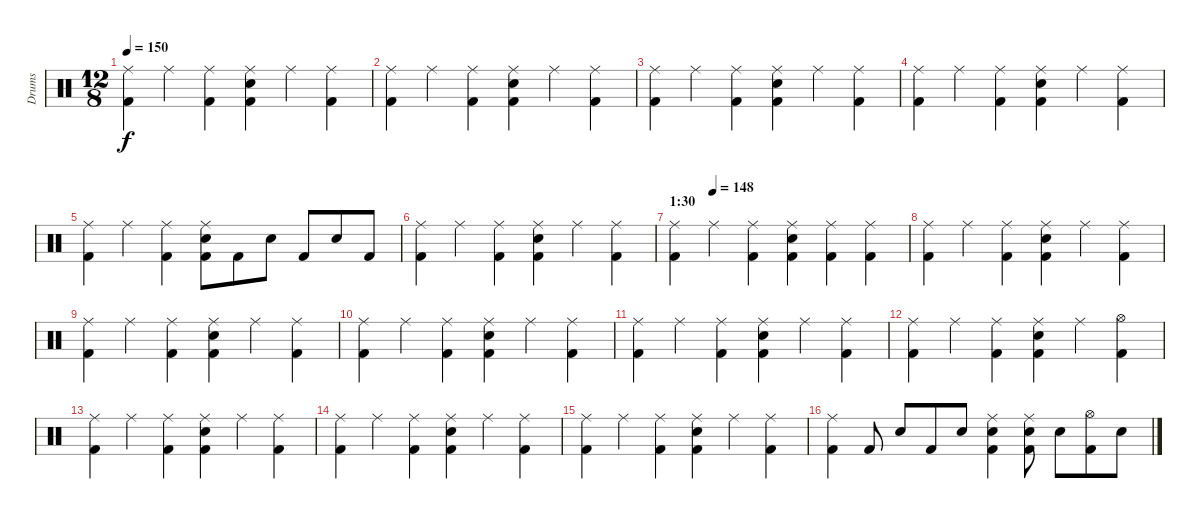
\track ("Drums" "Drums") {instrument percussion}
\staff {score}
\articulation defaults
\ts (12 8)
\tempo 150
\clef neutral
\ks c
("Ride (middle)" "Kick (hit) 2").4{dy f} "Ride (middle)".4 ("Ride (middle)" "Kick (hit) 2").4 ("Ride (middle)" "Snare (hit) 2" "Kick (hit) 2").4 "Ride (middle)".4 ("Ride (middle)" "Kick (hit) 2").4 |
("Ride (middle)" "Kick (hit) 2").4 "Ride (middle)".4 ("Ride (middle)" "Kick (hit) 2").4 ("Ride (middle)" "Snare (hit) 2" "Kick (hit) 2").4 "Ride (middle)".4 ("Ride (middle)" "Kick (hit) 2").4 |
("Ride (middle)" "Kick (hit) 2").4 "Ride (middle)".4 ("Ride (middle)" "Kick (hit) 2").4 ("Ride (middle)" "Snare (hit) 2" "Kick (hit) 2").4 "Ride (middle)".4 ("Ride (middle)" "Kick (hit) 2").4 |
("Ride (middle)" "Kick (hit) 2").4 "Ride (middle)".4 ("Ride (middle)" "Kick (hit) 2").4 ("Ride (middle)" "Snare (hit) 2" "Kick (hit) 2").4 "Ride (middle)".4 ("Ride (middle)" "Kick (hit) 2").4 |
("Ride (middle)" "Kick (hit) 2").4 "Ride (middle)".4 ("Ride (middle)" "Kick (hit) 2").4 ("Ride (middle)" "Snare (hit) 2" "Kick (hit) 2").8 "Kick (hit) 2".8 "Snare (hit) 2".8 "Kick (hit) 2".8 "Snare (hit) 2".8 "Kick (hit) 2".8 |
("Ride (middle)" "Kick (hit) 2").4 "Ride (middle)".4 ("Ride (middle)" "Kick (hit) 2").4 ("Ride (middle)" "Snare (hit) 2" "Kick (hit) 2").4 "Ride (middle)".4 ("Ride (middle)" "Kick (hit) 2").4 |
\section ("" "1:30")
\tempo (148 0.16666666666666666)
("Ride (middle)" "Kick (hit) 2").4 "Ride (middle)".4 ("Ride (middle)" "Kick (hit) 2").4 ("Ride (middle)" "Snare (hit) 2" "Kick (hit) 2").4 ("Ride (middle)" "Kick (hit) 2").4 ("Ride (middle)" "Kick (hit) 2").4 |
("Ride (middle)" "Kick (hit) 2").4 "Ride (middle)".4 ("Ride (middle)" "Kick (hit) 2").4 ("Ride (middle)" "Snare (hit) 2" "Kick (hit) 2").4 "Ride (middle)".4 ("Ride (middle)" "Kick (hit) 2").4 |
("Ride (middle)" "Kick (hit) 2").4 "Ride (middle)".4 ("Ride (middle)" "Kick (hit) 2").4 ("Ride (middle)" "Snare (hit) 2" "Kick (hit) 2").4 "Ride (middle)".4 ("Ride (middle)" "Kick (hit) 2").4 |
("Ride (middle)" "Kick (hit) 2").4 "Ride (middle)".4 ("Ride (middle)" "Kick (hit) 2").4 ("Ride (middle)" "Snare (hit) 2" "Kick (hit) 2").4 "Ride (middle)".4 ("Ride (middle)" "Kick (hit) 2").4 |
("Ride (middle)" "Kick (hit) 2").4 "Ride (middle)".4 ("Ride (middle)" "Kick (hit) 2").4 ("Ride (middle)" "Snare (hit) 2" "Kick (hit) 2").4 "Ride (middle)".4 ("Ride (middle)" "Kick (hit) 2").4 |
("Ride (middle)" "Kick (hit) 2").4 "Ride (middle)".4 ("Ride (middle)" "Kick (hit) 2").4 ("Ride (middle)" "Snare (hit) 2" "Kick (hit) 2").4 "Ride (middle)".4 ("Hi-Hat (open)" "Kick (hit) 2").4 |
("Ride (middle)" "Kick (hit) 2").4 "Ride (middle)".4 ("Ride (middle)" "Kick (hit) 2").4 ("Ride (middle)" "Snare (hit) 2" "Kick (hit) 2").4 "Ride (middle)".4 ("Ride (middle)" "Kick (hit) 2").4 |
("Ride (middle)" "Kick (hit) 2").4 "Ride (middle)".4 ("Ride (middle)" "Kick (hit) 2").4 ("Ride (middle)" "Snare (hit) 2" "Kick (hit) 2").4 "Ride (middle)".4 ("Ride (middle)" "Kick (hit) 2").4 |
("Ride (middle)" "Kick (hit) 2").4 "Ride (middle)".4 ("Ride (middle)" "Kick (hit) 2").4 ("Ride (middle)" "Snare (hit) 2" "Kick (hit) 2").4 "Ride (middle)".4 ("Ride (middle)" "Kick (hit) 2").4 |
("Ride (middle)" "Kick (hit) 2").4 "Kick (hit) 2".8 "Snare (hit) 2".8 "Kick (hit) 2".8 "Snare (hit) 2".8 ("Ride (middle)" "Snare (hit) 2" "Kick (hit) 2").4 ("Ride (middle)" "Snare (hit) 2" "Kick (hit) 2").8 "Snare (hit) 2".8 ("Hi-Hat (open)" "Kick (hit) 2").8 "Snare (hit) 2".8
